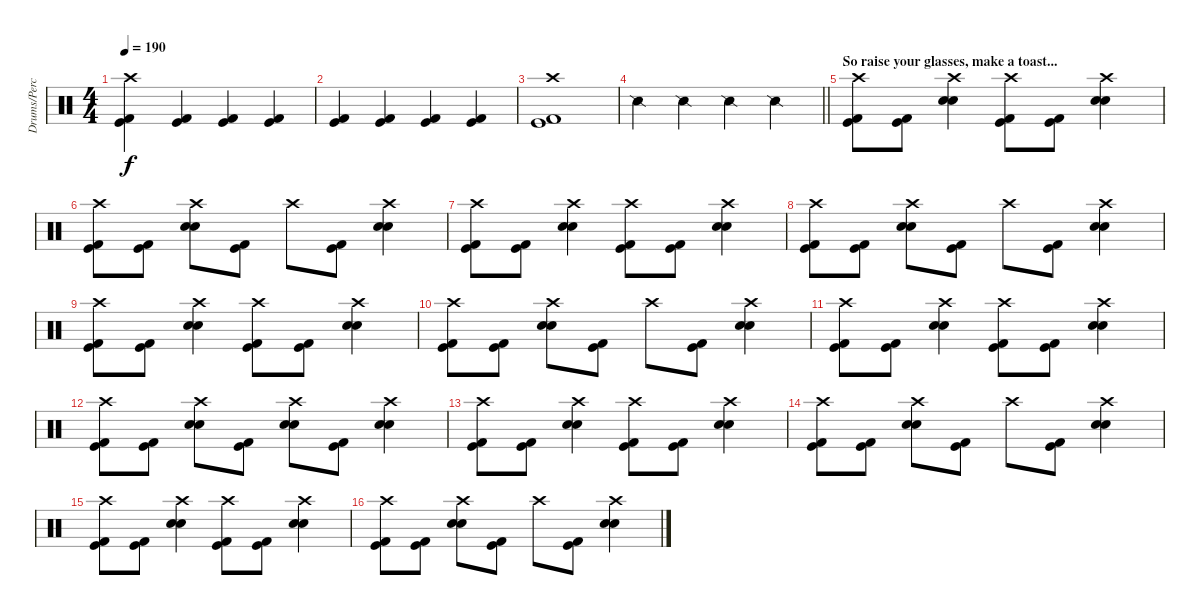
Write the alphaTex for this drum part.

\track ("Drums/Percussion" "Drums/Perc") {instrument percussion}
\staff {score}
\articulation defaults
\ts (4 4)
\tempo 190
\clef neutral
\ks c
("Crash high (hit)" "Kick (hit)" "Kick (hit) 2").4{dy f} ("Kick (hit)" "Kick (hit) 2").4 ("Kick (hit)" "Kick (hit) 2").4 ("Kick (hit)" "Kick (hit) 2").4 |
("Kick (hit)" "Kick (hit) 2").4 ("Kick (hit)" "Kick (hit) 2").4 ("Kick (hit)" "Kick (hit) 2").4 ("Kick (hit)" "Kick (hit) 2").4 |
("Crash high (hit)" "Kick (hit)" "Kick (hit) 2").1 |
\barLineRight lightlight "Snare (side stick) 2".4 "Snare (side stick) 2".4 "Snare (side stick) 2".4 "Snare (side stick) 2".4
|
\section ("" "So raise your glasses, make a toast...")
("Crash high (hit)" "Kick (hit)" "Kick (hit) 2").8 ("Kick (hit)" "Kick (hit) 2").8 ("Crash high (hit)" "Electric Snare (hit)" "Snare (hit) 2").4 ("Crash high (hit)" "Kick (hit)" "Kick (hit) 2").8 ("Kick (hit)" "Kick (hit) 2").8 ("Crash high (hit)" "Electric Snare (hit)" "Snare (hit) 2").4 |
("Crash high (hit)" "Kick (hit)" "Kick (hit) 2").8 ("Kick (hit)" "Kick (hit) 2").8 ("Crash high (hit)" "Electric Snare (hit)" "Snare (hit) 2").8 ("Kick (hit)" "Kick (hit) 2").8 "Crash high (hit)".8 ("Kick (hit)" "Kick (hit) 2").8 ("Crash high (hit)" "Electric Snare (hit)" "Snare (hit) 2").4 |
("Crash high (hit)" "Kick (hit)" "Kick (hit) 2").8 ("Kick (hit)" "Kick (hit) 2").8 ("Crash high (hit)" "Electric Snare (hit)" "Snare (hit) 2").4 ("Crash high (hit)" "Kick (hit)" "Kick (hit) 2").8 ("Kick (hit)" "Kick (hit) 2").8 ("Crash high (hit)" "Electric Snare (hit)" "Snare (hit) 2").4 |
("Crash high (hit)" "Kick (hit)" "Kick (hit) 2").8 ("Kick (hit)" "Kick (hit) 2").8 ("Crash high (hit)" "Electric Snare (hit)" "Snare (hit) 2").8 ("Kick (hit)" "Kick (hit) 2").8 "Crash high (hit)".8 ("Kick (hit)" "Kick (hit) 2").8 ("Crash high (hit)" "Electric Snare (hit)" "Snare (hit) 2").4 |
("Crash high (hit)" "Kick (hit)" "Kick (hit) 2").8 ("Kick (hit)" "Kick (hit) 2").8 ("Crash high (hit)" "Electric Snare (hit)" "Snare (hit) 2").4 ("Crash high (hit)" "Kick (hit)" "Kick (hit) 2").8 ("Kick (hit)" "Kick (hit) 2").8 ("Crash high (hit)" "Electric Snare (hit)" "Snare (hit) 2").4 |
("Crash high (hit)" "Kick (hit)" "Kick (hit) 2").8 ("Kick (hit)" "Kick (hit) 2").8 ("Crash high (hit)" "Electric Snare (hit)" "Snare (hit) 2").8 ("Kick (hit)" "Kick (hit) 2").8 "Crash high (hit)".8 ("Kick (hit)" "Kick (hit) 2").8 ("Crash high (hit)" "Electric Snare (hit)" "Snare (hit) 2").4 |
("Crash high (hit)" "Kick (hit)" "Kick (hit) 2").8 ("Kick (hit)" "Kick (hit) 2").8 ("Crash high (hit)" "Electric Snare (hit)" "Snare (hit) 2").4 ("Crash high (hit)" "Kick (hit)" "Kick (hit) 2").8 ("Kick (hit)" "Kick (hit) 2").8 ("Crash high (hit)" "Electric Snare (hit)" "Snare (hit) 2").4 |
("Crash high (hit)" "Kick (hit)" "Kick (hit) 2").8 ("Kick (hit)" "Kick (hit) 2").8 ("Crash high (hit)" "Electric Snare (hit)" "Snare (hit) 2").8 ("Kick (hit)" "Kick (hit) 2").8 ("Crash high (hit)" "Electric Snare (hit)" "Snare (hit) 2").8 ("Kick (hit)" "Kick (hit) 2").8 ("Crash high (hit)" "Electric Snare (hit)" "Snare (hit) 2").4 |
("Crash high (hit)" "Kick (hit)" "Kick (hit) 2").8 ("Kick (hit)" "Kick (hit) 2").8 ("Crash high (hit)" "Electric Snare (hit)" "Snare (hit) 2").4 ("Crash high (hit)" "Kick (hit)" "Kick (hit) 2").8 ("Kick (hit)" "Kick (hit) 2").8 ("Crash high (hit)" "Electric Snare (hit)" "Snare (hit) 2").4 |
("Crash high (hit)" "Kick (hit)" "Kick (hit) 2").8 ("Kick (hit)" "Kick (hit) 2").8 ("Crash high (hit)" "Electric Snare (hit)" "Snare (hit) 2").8 ("Kick (hit)" "Kick (hit) 2").8 "Crash high (hit)".8 ("Kick (hit)" "Kick (hit) 2").8 ("Crash high (hit)" "Electric Snare (hit)" "Snare (hit) 2").4 |
("Crash high (hit)" "Kick (hit)" "Kick (hit) 2").8 ("Kick (hit)" "Kick (hit) 2").8 ("Crash high (hit)" "Electric Snare (hit)" "Snare (hit) 2").4 ("Crash high (hit)" "Kick (hit)" "Kick (hit) 2").8 ("Kick (hit)" "Kick (hit) 2").8 ("Crash high (hit)" "Electric Snare (hit)" "Snare (hit) 2").4 |
("Crash high (hit)" "Kick (hit)" "Kick (hit) 2").8 ("Kick (hit)" "Kick (hit) 2").8 ("Crash high (hit)" "Electric Snare (hit)" "Snare (hit) 2").8 ("Kick (hit)" "Kick (hit) 2").8 "Crash high (hit)".8 ("Kick (hit)" "Kick (hit) 2").8 ("Crash high (hit)" "Electric Snare (hit)" "Snare (hit) 2").4
